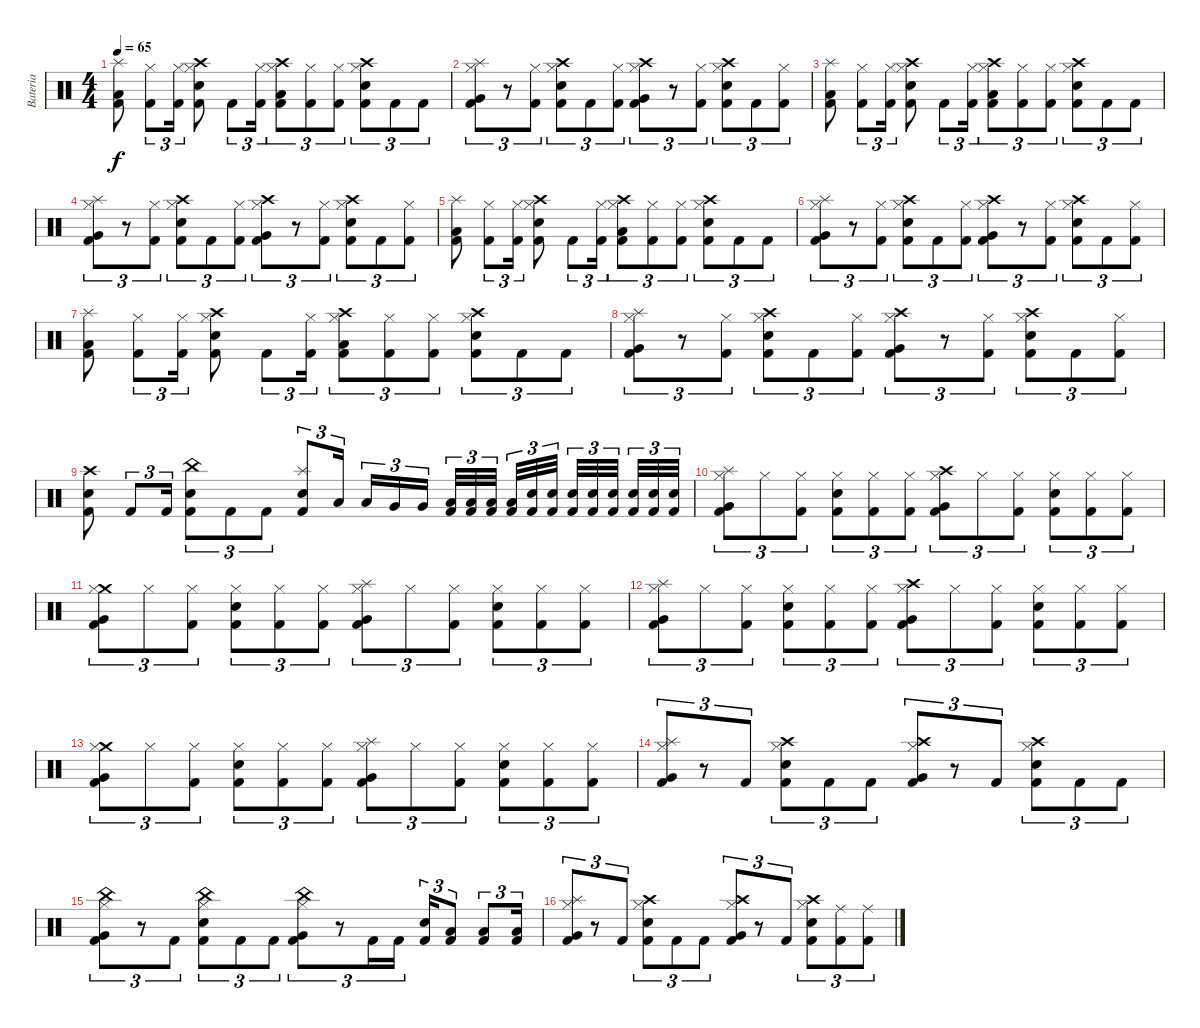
\track ("Bateria" "Bateria") {instrument percussion}
\staff {score}
\articulation defaults
\ts (4 4)
\tempo 65
\clef neutral
\ks c
("Kick (hit) 2" "Low Floor Tom (hit)" "Splash (hit)").8{dy f} ("Kick (hit) 2" "Hi-Hat (closed)").8{tu (3 2)} ("Kick (hit) 2" "Hi-Hat (closed)").16{tu (3 2)} ("Kick (hit) 2" "Snare (hit) 2" "Crash high (hit)" "Hi-Hat (closed)").8 "Kick (hit) 2".8{tu (3 2)} ("Kick (hit) 2" "Hi-Hat (closed)").16{tu (3 2)} ("Kick (hit) 2" "Low Floor Tom (hit)" "Crash high (hit)" "Hi-Hat (closed)").8{tu (3 2)} ("Kick (hit) 2" "Hi-Hat (closed)").8{tu (3 2)} ("Kick (hit) 2" "Hi-Hat (closed)").8{tu (3 2)} ("Kick (hit) 2" "Snare (hit) 2" "Crash high (hit)" "Hi-Hat (closed)").8{tu (3 2)} "Kick (hit) 2".8{tu (3 2)} "Kick (hit) 2".8{tu (3 2)} |
("Kick (hit) 2" "Splash (hit)" "Very Low Tom (hit)" "Hi-Hat (closed)").8{tu (3 2)} r.8{tu (3 2)} ("Kick (hit) 2" "Hi-Hat (closed)").8{tu (3 2)} ("Snare (hit) 2" "Kick (hit) 2" "Crash high (hit)" "Hi-Hat (closed)").8{tu (3 2)} "Kick (hit) 2".8{tu (3 2)} ("Kick (hit) 2" "Hi-Hat (closed)").8{tu (3 2)} ("Kick (hit) 2" "Crash high (hit)" "Very Low Tom (hit)" "Hi-Hat (closed)").8{tu (3 2)} r.8{tu (3 2)} ("Kick (hit) 2" "Hi-Hat (closed)").8{tu (3 2)} ("Snare (hit) 2" "Kick (hit) 2" "Crash high (hit)" "Hi-Hat (closed)").8{tu (3 2)} "Kick (hit) 2".8{tu (3 2)} ("Kick (hit) 2" "Hi-Hat (closed)").8{tu (3 2)} |
("Kick (hit) 2" "Low Floor Tom (hit)" "Splash (hit)").8 ("Kick (hit) 2" "Hi-Hat (closed)").8{tu (3 2)} ("Kick (hit) 2" "Hi-Hat (closed)").16{tu (3 2)} ("Kick (hit) 2" "Snare (hit) 2" "Crash high (hit)" "Hi-Hat (closed)").8 "Kick (hit) 2".8{tu (3 2)} ("Kick (hit) 2" "Hi-Hat (closed)").16{tu (3 2)} ("Kick (hit) 2" "Low Floor Tom (hit)" "Crash high (hit)" "Hi-Hat (closed)").8{tu (3 2)} ("Kick (hit) 2" "Hi-Hat (closed)").8{tu (3 2)} ("Kick (hit) 2" "Hi-Hat (closed)").8{tu (3 2)} ("Kick (hit) 2" "Snare (hit) 2" "Crash high (hit)" "Hi-Hat (closed)").8{tu (3 2)} "Kick (hit) 2".8{tu (3 2)} "Kick (hit) 2".8{tu (3 2)} |
("Kick (hit) 2" "Splash (hit)" "Very Low Tom (hit)" "Hi-Hat (closed)").8{tu (3 2)} r.8{tu (3 2)} ("Kick (hit) 2" "Hi-Hat (closed)").8{tu (3 2)} ("Snare (hit) 2" "Kick (hit) 2" "Crash high (hit)" "Hi-Hat (closed)").8{tu (3 2)} "Kick (hit) 2".8{tu (3 2)} ("Kick (hit) 2" "Hi-Hat (closed)").8{tu (3 2)} ("Kick (hit) 2" "Crash high (hit)" "Very Low Tom (hit)" "Hi-Hat (closed)").8{tu (3 2)} r.8{tu (3 2)} ("Kick (hit) 2" "Hi-Hat (closed)").8{tu (3 2)} ("Snare (hit) 2" "Kick (hit) 2" "Crash high (hit)" "Hi-Hat (closed)").8{tu (3 2)} "Kick (hit) 2".8{tu (3 2)} ("Kick (hit) 2" "Hi-Hat (closed)").8{tu (3 2)} |
("Kick (hit) 2" "Low Floor Tom (hit)" "Splash (hit)").8 ("Kick (hit) 2" "Hi-Hat (closed)").8{tu (3 2)} ("Kick (hit) 2" "Hi-Hat (closed)").16{tu (3 2)} ("Kick (hit) 2" "Snare (hit) 2" "Crash high (hit)" "Hi-Hat (closed)").8 "Kick (hit) 2".8{tu (3 2)} ("Kick (hit) 2" "Hi-Hat (closed)").16{tu (3 2)} ("Kick (hit) 2" "Low Floor Tom (hit)" "Crash high (hit)" "Hi-Hat (closed)").8{tu (3 2)} ("Kick (hit) 2" "Hi-Hat (closed)").8{tu (3 2)} ("Kick (hit) 2" "Hi-Hat (closed)").8{tu (3 2)} ("Kick (hit) 2" "Snare (hit) 2" "Crash high (hit)" "Hi-Hat (closed)").8{tu (3 2)} "Kick (hit) 2".8{tu (3 2)} "Kick (hit) 2".8{tu (3 2)} |
("Kick (hit) 2" "Splash (hit)" "Very Low Tom (hit)" "Hi-Hat (closed)").8{tu (3 2)} r.8{tu (3 2)} ("Kick (hit) 2" "Hi-Hat (closed)").8{tu (3 2)} ("Snare (hit) 2" "Kick (hit) 2" "Crash high (hit)" "Hi-Hat (closed)").8{tu (3 2)} "Kick (hit) 2".8{tu (3 2)} ("Kick (hit) 2" "Hi-Hat (closed)").8{tu (3 2)} ("Kick (hit) 2" "Crash high (hit)" "Very Low Tom (hit)" "Hi-Hat (closed)").8{tu (3 2)} r.8{tu (3 2)} ("Kick (hit) 2" "Hi-Hat (closed)").8{tu (3 2)} ("Snare (hit) 2" "Kick (hit) 2" "Crash high (hit)" "Hi-Hat (closed)").8{tu (3 2)} "Kick (hit) 2".8{tu (3 2)} ("Kick (hit) 2" "Hi-Hat (closed)").8{tu (3 2)} |
("Kick (hit) 2" "Low Floor Tom (hit)" "Splash (hit)").8 ("Kick (hit) 2" "Hi-Hat (closed)").8{tu (3 2)} ("Kick (hit) 2" "Hi-Hat (closed)").16{tu (3 2)} ("Kick (hit) 2" "Snare (hit) 2" "Crash high (hit)" "Hi-Hat (closed)").8 "Kick (hit) 2".8{tu (3 2)} ("Kick (hit) 2" "Hi-Hat (closed)").16{tu (3 2)} ("Kick (hit) 2" "Low Floor Tom (hit)" "Crash high (hit)" "Hi-Hat (closed)").8{tu (3 2)} ("Kick (hit) 2" "Hi-Hat (closed)").8{tu (3 2)} ("Kick (hit) 2" "Hi-Hat (closed)").8{tu (3 2)} ("Kick (hit) 2" "Snare (hit) 2" "Crash high (hit)" "Hi-Hat (closed)").8{tu (3 2)} "Kick (hit) 2".8{tu (3 2)} "Kick (hit) 2".8{tu (3 2)} |
("Kick (hit) 2" "Splash (hit)" "Very Low Tom (hit)" "Hi-Hat (closed)").8{tu (3 2)} r.8{tu (3 2)} ("Kick (hit) 2" "Hi-Hat (closed)").8{tu (3 2)} ("Snare (hit) 2" "Kick (hit) 2" "Crash high (hit)" "Hi-Hat (closed)").8{tu (3 2)} "Kick (hit) 2".8{tu (3 2)} ("Kick (hit) 2" "Hi-Hat (closed)").8{tu (3 2)} ("Kick (hit) 2" "Crash high (hit)" "Very Low Tom (hit)" "Hi-Hat (closed)").8{tu (3 2)} r.8{tu (3 2)} ("Kick (hit) 2" "Hi-Hat (closed)").8{tu (3 2)} ("Snare (hit) 2" "Kick (hit) 2" "Crash high (hit)" "Hi-Hat (closed)").8{tu (3 2)} "Kick (hit) 2".8{tu (3 2)} ("Kick (hit) 2" "Hi-Hat (closed)").8{tu (3 2)} |
("Kick (hit) 2" "Snare (hit) 2" "Crash high (hit)").8 "Kick (hit) 2".8{tu (3 2)} "Kick (hit) 2".16{tu (3 2)} ("Snare (hit) 2" "Kick (hit) 2" "China (hit)").8{tu (3 2)} "Kick (hit) 2".8{tu (3 2)} "Kick (hit) 2".8{tu (3 2)} ("Kick (hit) 2" "Splash (hit)" "Snare (hit) 2").8{tu (3 2)} "Low Tom (hit)".16{tu (3 2) beam splitsecondary} "Low Tom (hit)".16{tu (3 2)} "Very Low Tom (hit)".16{tu (3 2)} "Very Low Tom (hit)".16{tu (3 2)} ("Low Floor Tom (hit)" "Kick (hit) 2").32{tu (3 2)} ("Low Floor Tom (hit)" "Kick (hit) 2").32{tu (3 2)} ("Low Floor Tom (hit)" "Kick (hit) 2").32{tu (3 2) beam splitsecondary} ("Low Floor Tom (hit)" "Kick (hit) 2").32{tu (3 2)} ("Snare (hit) 2" "Kick (hit) 2").32{tu (3 2)} ("Snare (hit) 2" "Kick (hit) 2").32{tu (3 2) beam splitsecondary} ("Snare (hit) 2" "Kick (hit) 2").32{tu (3 2)} ("Snare (hit) 2" "Kick (hit) 2").32{tu (3 2)} ("Snare (hit) 2" "Kick (hit) 2").32{tu (3 2) beam splitsecondary} ("Snare (hit) 2" "Kick (hit) 2").32{tu (3 2)} ("Snare (hit) 2" "Kick (hit) 2").32{tu (3 2)} ("Snare (hit) 2" "Kick (hit) 2").32{tu (3 2)} |
("Kick (hit) 2" "Splash (hit)" "Very Low Tom (hit)" "Hi-Hat (closed)").8{tu (3 2)} "Hi-Hat (closed)".8{tu (3 2)} ("Kick (hit) 2" "Hi-Hat (closed)").8{tu (3 2)} ("Snare (hit) 2" "Kick (hit) 2" "Hi-Hat (closed)").8{tu (3 2)} ("Kick (hit) 2" "Hi-Hat (closed)").8{tu (3 2)} ("Kick (hit) 2" "Hi-Hat (closed)").8{tu (3 2)} ("Kick (hit) 2" "Crash high (hit)" "Very Low Tom (hit)" "Hi-Hat (closed)").8{tu (3 2)} "Hi-Hat (closed)".8{tu (3 2)} ("Kick (hit) 2" "Hi-Hat (closed)").8{tu (3 2)} ("Snare (hit) 2" "Kick (hit) 2" "Hi-Hat (closed)").8{tu (3 2)} ("Kick (hit) 2" "Hi-Hat (closed)").8{tu (3 2)} ("Kick (hit) 2" "Hi-Hat (closed)").8{tu (3 2)} |
("Kick (hit) 2" "Crash medium (hit)" "Very Low Tom (hit)" "Hi-Hat (closed)").8{tu (3 2)} "Hi-Hat (closed)".8{tu (3 2)} ("Kick (hit) 2" "Hi-Hat (closed)").8{tu (3 2)} ("Snare (hit) 2" "Kick (hit) 2" "Hi-Hat (closed)").8{tu (3 2)} ("Kick (hit) 2" "Hi-Hat (closed)").8{tu (3 2)} ("Kick (hit) 2" "Hi-Hat (closed)").8{tu (3 2)} ("Kick (hit) 2" "Splash (hit)" "Very Low Tom (hit)" "Hi-Hat (closed)").8{tu (3 2)} "Hi-Hat (closed)".8{tu (3 2)} ("Kick (hit) 2" "Hi-Hat (closed)").8{tu (3 2)} ("Snare (hit) 2" "Kick (hit) 2" "Hi-Hat (closed)").8{tu (3 2)} ("Kick (hit) 2" "Hi-Hat (closed)").8{tu (3 2)} ("Kick (hit) 2" "Hi-Hat (closed)").8{tu (3 2)} |
("Kick (hit) 2" "Splash (hit)" "Very Low Tom (hit)" "Hi-Hat (closed)").8{tu (3 2)} "Hi-Hat (closed)".8{tu (3 2)} ("Kick (hit) 2" "Hi-Hat (closed)").8{tu (3 2)} ("Snare (hit) 2" "Kick (hit) 2" "Hi-Hat (closed)").8{tu (3 2)} ("Kick (hit) 2" "Hi-Hat (closed)").8{tu (3 2)} ("Kick (hit) 2" "Hi-Hat (closed)").8{tu (3 2)} ("Kick (hit) 2" "Crash high (hit)" "Very Low Tom (hit)" "Hi-Hat (closed)").8{tu (3 2)} "Hi-Hat (closed)".8{tu (3 2)} ("Kick (hit) 2" "Hi-Hat (closed)").8{tu (3 2)} ("Snare (hit) 2" "Kick (hit) 2" "Hi-Hat (closed)").8{tu (3 2)} ("Kick (hit) 2" "Hi-Hat (closed)").8{tu (3 2)} ("Kick (hit) 2" "Hi-Hat (closed)").8{tu (3 2)} |
("Kick (hit) 2" "Crash medium (hit)" "Very Low Tom (hit)" "Hi-Hat (closed)").8{tu (3 2)} "Hi-Hat (closed)".8{tu (3 2)} ("Kick (hit) 2" "Hi-Hat (closed)").8{tu (3 2)} ("Snare (hit) 2" "Kick (hit) 2" "Hi-Hat (closed)").8{tu (3 2)} ("Kick (hit) 2" "Hi-Hat (closed)").8{tu (3 2)} ("Kick (hit) 2" "Hi-Hat (closed)").8{tu (3 2)} ("Kick (hit) 2" "Splash (hit)" "Very Low Tom (hit)" "Hi-Hat (closed)").8{tu (3 2)} "Hi-Hat (closed)".8{tu (3 2)} ("Kick (hit) 2" "Hi-Hat (closed)").8{tu (3 2)} ("Snare (hit) 2" "Kick (hit) 2" "Hi-Hat (closed)").8{tu (3 2)} ("Kick (hit) 2" "Hi-Hat (closed)").8{tu (3 2)} ("Kick (hit) 2" "Hi-Hat (closed)").8{tu (3 2)} |
("Kick (hit) 2" "Splash (hit)" "Very Low Tom (hit)" "Hi-Hat (closed)").8{tu (3 2)} r.8{tu (3 2)} "Kick (hit) 2".8{tu (3 2)} ("Snare (hit) 2" "Kick (hit) 2" "Crash high (hit)" "Hi-Hat (closed)").8{tu (3 2)} "Kick (hit) 2".8{tu (3 2)} "Kick (hit) 2".8{tu (3 2)} ("Kick (hit) 2" "Crash high (hit)" "Very Low Tom (hit)" "Hi-Hat (closed)").8{tu (3 2)} r.8{tu (3 2)} "Kick (hit) 2".8{tu (3 2)} ("Snare (hit) 2" "Kick (hit) 2" "Crash high (hit)" "Hi-Hat (closed)").8{tu (3 2)} "Kick (hit) 2".8{tu (3 2)} "Kick (hit) 2".8{tu (3 2)} |
("Kick (hit) 2" "China (hit)" "Very Low Tom (hit)" "Hi-Hat (closed)").8{tu (3 2)} r.8{tu (3 2)} "Kick (hit) 2".8{tu (3 2)} ("Snare (hit) 2" "Kick (hit) 2" "China (hit)" "Hi-Hat (closed)").8{tu (3 2)} "Kick (hit) 2".8{tu (3 2)} "Kick (hit) 2".8{tu (3 2)} ("Kick (hit) 2" "China (hit)" "Very Low Tom (hit)" "Hi-Hat (closed)").8{tu (3 2)} r.8{tu (3 2)} "Kick (hit) 2".16{tu (3 2)} "Kick (hit) 2".16{tu (3 2)} ("Snare (hit) 2" "Kick (hit) 2").16{tu (3 2)} ("Low Floor Tom (hit)" "Kick (hit) 2").8{tu (3 2)} ("Kick (hit) 2" "Low Floor Tom (hit)").8{tu (3 2)} ("Low Floor Tom (hit)" "Kick (hit) 2").16{tu (3 2)} |
("Kick (hit) 2" "Splash (hit)" "Very Low Tom (hit)" "Hi-Hat (closed)").8{tu (3 2)} r.8{tu (3 2)} "Kick (hit) 2".8{tu (3 2)} ("Snare (hit) 2" "Kick (hit) 2" "Crash high (hit)" "Hi-Hat (closed)").8{tu (3 2)} "Kick (hit) 2".8{tu (3 2)} "Kick (hit) 2".8{tu (3 2)} ("Kick (hit) 2" "Crash high (hit)" "Very Low Tom (hit)" "Hi-Hat (closed)").8{tu (3 2)} r.8{tu (3 2)} "Kick (hit) 2".8{tu (3 2)} ("Snare (hit) 2" "Kick (hit) 2" "Crash high (hit)" "Hi-Hat (closed)").8{tu (3 2)} ("Ride (middle)" "Kick (hit) 2").8{tu (3 2)} ("Ride (middle)" "Kick (hit) 2").8{tu (3 2)}
